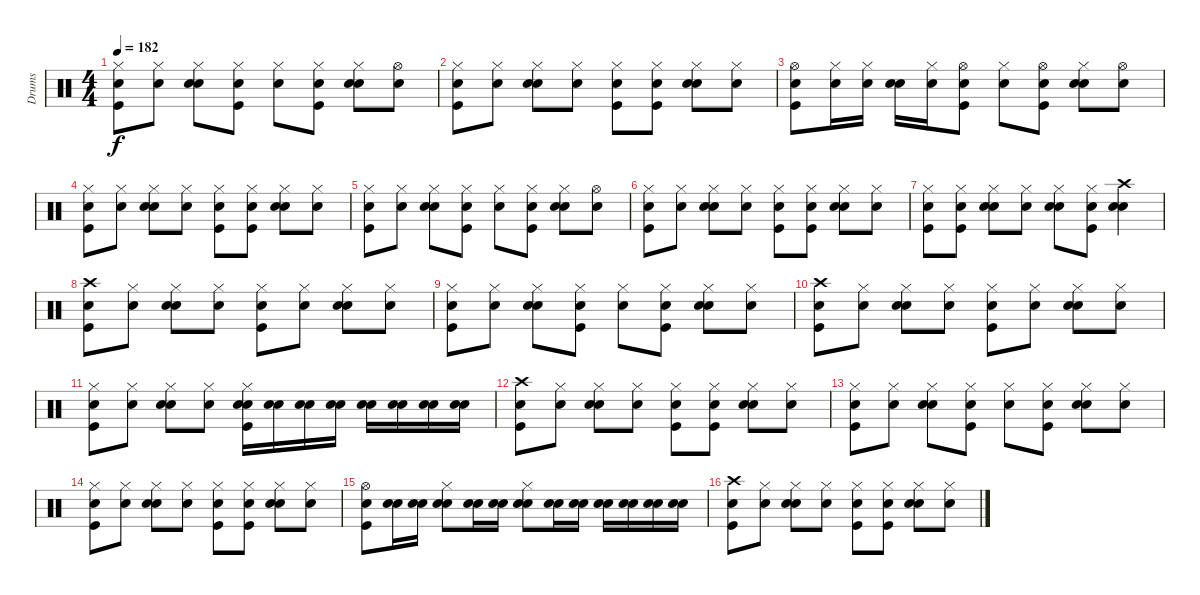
\track ("Drums" "Drums") {instrument percussion}
\staff {score}
\articulation defaults
\ts (4 4)
\tempo 182
\clef neutral
\ks c
("Snare (hit)" "Kick (hit)" "Hi-Hat (closed)").8{dy f} ("Snare (hit)" "Hi-Hat (closed)").8 ("Snare (hit)" "Electric Snare (hit)" "Hi-Hat (closed)").8 ("Snare (hit)" "Kick (hit)" "Hi-Hat (closed)").8 ("Snare (hit)" "Hi-Hat (closed)").8 ("Snare (hit)" "Kick (hit)" "Hi-Hat (closed)").8 ("Snare (hit)" "Electric Snare (hit)" "Hi-Hat (closed)").8 ("Snare (hit)" "Hi-Hat (open)").8 |
("Snare (hit)" "Kick (hit)" "Hi-Hat (closed)").8 ("Snare (hit)" "Hi-Hat (closed)").8 ("Snare (hit)" "Electric Snare (hit)" "Hi-Hat (closed)").8 ("Snare (hit)" "Hi-Hat (closed)").8 ("Snare (hit)" "Kick (hit)" "Hi-Hat (closed)").8 ("Snare (hit)" "Kick (hit)" "Hi-Hat (closed)").8 ("Snare (hit)" "Electric Snare (hit)" "Hi-Hat (closed)").8 ("Snare (hit)" "Hi-Hat (closed)").8 |
("Snare (hit)" "Kick (hit)" "Hi-Hat (open)").8 ("Snare (hit)" "Hi-Hat (closed)").16 ("Snare (hit)" "Hi-Hat (closed)").16 ("Snare (hit)" "Electric Snare (hit)").16 ("Snare (hit)" "Hi-Hat (closed)").16 ("Snare (hit)" "Kick (hit)" "Hi-Hat (open)").8 ("Snare (hit)" "Hi-Hat (closed)").8 ("Snare (hit)" "Kick (hit)" "Hi-Hat (open)").8 ("Snare (hit)" "Electric Snare (hit)" "Hi-Hat (closed)").8 ("Snare (hit)" "Hi-Hat (open)").8 |
("Snare (hit)" "Kick (hit)" "Hi-Hat (closed)").8 ("Snare (hit)" "Hi-Hat (closed)").8 ("Snare (hit)" "Electric Snare (hit)" "Hi-Hat (closed)").8 ("Snare (hit)" "Hi-Hat (closed)").8 ("Snare (hit)" "Kick (hit)" "Hi-Hat (closed)").8 ("Snare (hit)" "Kick (hit)" "Hi-Hat (closed)").8 ("Snare (hit)" "Electric Snare (hit)" "Hi-Hat (closed)").8 ("Snare (hit)" "Hi-Hat (closed)").8 |
("Snare (hit)" "Kick (hit)" "Hi-Hat (closed)").8 ("Snare (hit)" "Hi-Hat (closed)").8 ("Snare (hit)" "Electric Snare (hit)" "Hi-Hat (closed)").8 ("Snare (hit)" "Kick (hit)" "Hi-Hat (closed)").8 ("Snare (hit)" "Hi-Hat (closed)").8 ("Snare (hit)" "Kick (hit)" "Hi-Hat (closed)").8 ("Snare (hit)" "Electric Snare (hit)" "Hi-Hat (closed)").8 ("Snare (hit)" "Hi-Hat (open)").8 |
("Snare (hit)" "Kick (hit)" "Hi-Hat (closed)").8 ("Snare (hit)" "Hi-Hat (closed)").8 ("Snare (hit)" "Electric Snare (hit)" "Hi-Hat (closed)").8 ("Snare (hit)" "Hi-Hat (closed)").8 ("Snare (hit)" "Kick (hit)" "Hi-Hat (closed)").8 ("Snare (hit)" "Kick (hit)" "Hi-Hat (closed)").8 ("Snare (hit)" "Electric Snare (hit)" "Hi-Hat (closed)").8 ("Snare (hit)" "Hi-Hat (closed)").8 |
("Snare (hit)" "Kick (hit)" "Hi-Hat (closed)").8 ("Snare (hit)" "Kick (hit)" "Hi-Hat (closed)").8 ("Snare (hit)" "Electric Snare (hit)" "Hi-Hat (closed)").8 ("Snare (hit)" "Hi-Hat (closed)").8 ("Snare (hit)" "Electric Snare (hit)" "Hi-Hat (closed)").8 ("Snare (hit)" "Kick (hit)" "Hi-Hat (closed)").8 ("Snare (hit)" "Electric Snare (hit)" "Crash high (hit)").4 |
("Snare (hit)" "Kick (hit)" "Crash high (hit)").8 ("Snare (hit)" "Hi-Hat (closed)").8 ("Snare (hit)" "Electric Snare (hit)" "Hi-Hat (closed)").8 ("Snare (hit)" "Hi-Hat (closed)").8 ("Snare (hit)" "Kick (hit)" "Hi-Hat (closed)").8 ("Snare (hit)" "Hi-Hat (closed)").8 ("Snare (hit)" "Electric Snare (hit)" "Hi-Hat (closed)").8 ("Snare (hit)" "Hi-Hat (closed)").8 |
("Snare (hit)" "Kick (hit)" "Hi-Hat (closed)").8 ("Snare (hit)" "Hi-Hat (closed)").8 ("Snare (hit)" "Electric Snare (hit)" "Hi-Hat (closed)").8 ("Snare (hit)" "Kick (hit)" "Hi-Hat (closed)").8 ("Snare (hit)" "Hi-Hat (closed)").8 ("Snare (hit)" "Kick (hit)" "Hi-Hat (closed)").8 ("Snare (hit)" "Electric Snare (hit)" "Hi-Hat (closed)").8 ("Snare (hit)" "Hi-Hat (closed)").8 |
("Snare (hit)" "Crash high (hit)" "Kick (hit)").8 ("Snare (hit)" "Hi-Hat (closed)").8 ("Snare (hit)" "Electric Snare (hit)" "Hi-Hat (closed)").8 ("Snare (hit)" "Hi-Hat (closed)").8 ("Snare (hit)" "Kick (hit)" "Hi-Hat (closed)").8 ("Snare (hit)" "Hi-Hat (closed)").8 ("Snare (hit)" "Electric Snare (hit)" "Hi-Hat (closed)").8 ("Snare (hit)" "Hi-Hat (closed)").8 |
("Snare (hit)" "Kick (hit)" "Hi-Hat (closed)").8 ("Snare (hit)" "Hi-Hat (closed)").8 ("Snare (hit)" "Electric Snare (hit)" "Hi-Hat (closed)").8 ("Snare (hit)" "Hi-Hat (closed)").8 ("Snare (hit)" "Kick (hit)" "Electric Snare (hit)" "Hi-Hat (closed)").16 ("Snare (hit)" "Electric Snare (hit)").16 ("Snare (hit)" "Electric Snare (hit)").16 ("Snare (hit)" "Electric Snare (hit)").16 ("Snare (hit)" "Electric Snare (hit)").16 ("Snare (hit)" "Electric Snare (hit)").16 ("Snare (hit)" "Electric Snare (hit)").16 ("Snare (hit)" "Electric Snare (hit)").16 |
("Snare (hit)" "Kick (hit)" "Crash high (hit)").8 ("Snare (hit)" "Hi-Hat (closed)").8 ("Snare (hit)" "Electric Snare (hit)" "Hi-Hat (closed)").8 ("Snare (hit)" "Hi-Hat (closed)").8 ("Snare (hit)" "Kick (hit)" "Hi-Hat (closed)").8 ("Snare (hit)" "Kick (hit)" "Hi-Hat (closed)").8 ("Snare (hit)" "Electric Snare (hit)" "Hi-Hat (closed)").8 ("Snare (hit)" "Hi-Hat (closed)").8 |
("Snare (hit)" "Kick (hit)" "Hi-Hat (closed)").8 ("Snare (hit)" "Hi-Hat (closed)").8 ("Snare (hit)" "Electric Snare (hit)" "Hi-Hat (closed)").8 ("Snare (hit)" "Kick (hit)" "Hi-Hat (closed)").8 ("Snare (hit)" "Hi-Hat (closed)").8 ("Snare (hit)" "Kick (hit)" "Hi-Hat (closed)").8 ("Snare (hit)" "Electric Snare (hit)" "Hi-Hat (closed)").8 ("Snare (hit)" "Hi-Hat (closed)").8 |
("Snare (hit)" "Kick (hit)" "Hi-Hat (closed)").8 ("Snare (hit)" "Hi-Hat (closed)").8 ("Snare (hit)" "Electric Snare (hit)" "Hi-Hat (closed)").8 ("Snare (hit)" "Hi-Hat (closed)").8 ("Snare (hit)" "Kick (hit)" "Hi-Hat (closed)").8 ("Snare (hit)" "Kick (hit)" "Hi-Hat (closed)").8 ("Snare (hit)" "Electric Snare (hit)" "Hi-Hat (closed)").8 ("Snare (hit)" "Hi-Hat (closed)").8 |
("Snare (hit)" "Kick (hit)" "Hi-Hat (open)").8 ("Snare (hit)" "Electric Snare (hit)").16 ("Snare (hit)" "Electric Snare (hit)").16 ("Snare (hit)" "Electric Snare (hit)" "Hi-Hat (closed)").8 ("Snare (hit)" "Electric Snare (hit)").16 ("Snare (hit)" "Electric Snare (hit)").16 ("Snare (hit)" "Electric Snare (hit)" "Hi-Hat (closed)").8 ("Snare (hit)" "Electric Snare (hit)").16 ("Snare (hit)" "Electric Snare (hit)").16 ("Snare (hit)" "Electric Snare (hit)").16 ("Snare (hit)" "Electric Snare (hit)").16 ("Snare (hit)" "Electric Snare (hit)").16 ("Snare (hit)" "Electric Snare (hit)").16 |
("Snare (hit)" "Kick (hit)" "Crash high (hit)").8 ("Snare (hit)" "Hi-Hat (closed)").8 ("Snare (hit)" "Electric Snare (hit)" "Hi-Hat (closed)").8 ("Snare (hit)" "Hi-Hat (closed)").8 ("Snare (hit)" "Kick (hit)" "Hi-Hat (closed)").8 ("Snare (hit)" "Kick (hit)" "Hi-Hat (closed)").8 ("Snare (hit)" "Electric Snare (hit)" "Hi-Hat (closed)").8 ("Snare (hit)" "Hi-Hat (closed)").8
